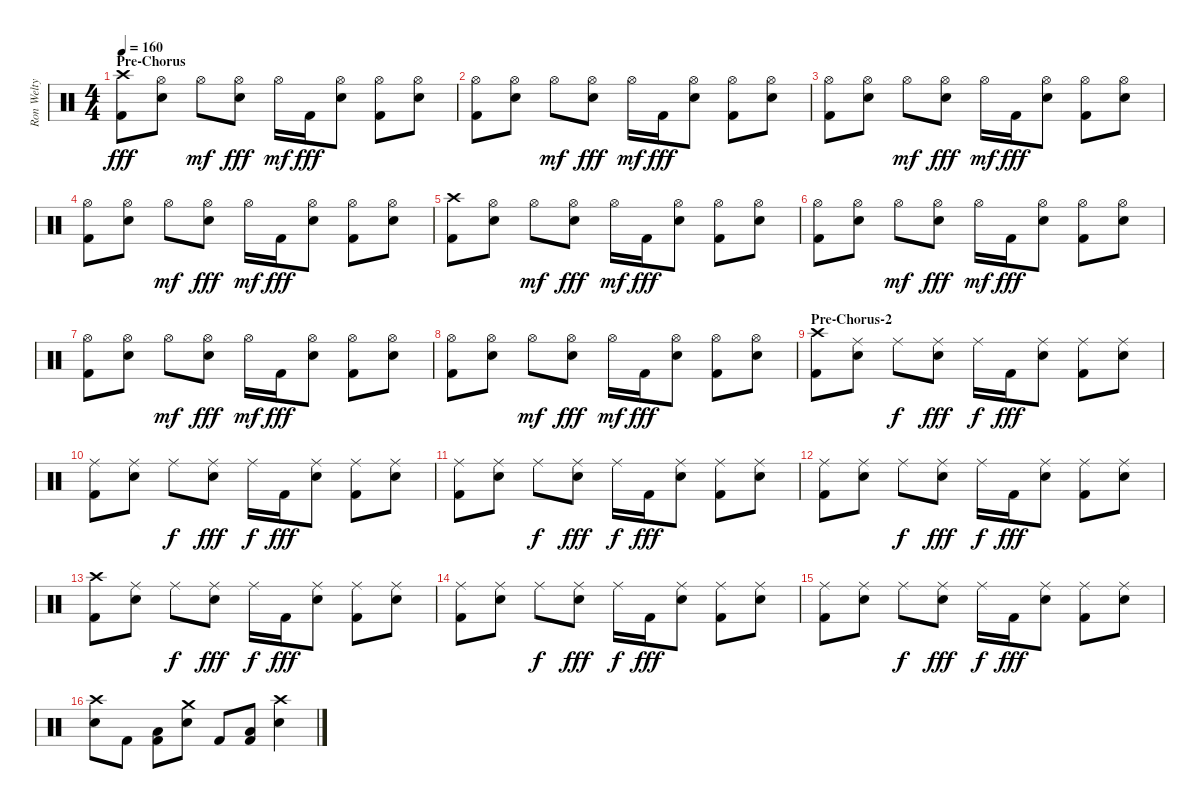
\track ("Ron Welty" "Ron Welty") {instrument percussion}
\staff {score}
\articulation defaults
\ts (4 4)
\section ("" "Pre-Chorus")
\tempo 160
\clef neutral
\ks c
("Crash high (hit)" "Kick (hit) 2").8{dy fff} ("Hi-Hat (open)" "Snare (hit) 2").8 "Hi-Hat (open)".8{dy mf} ("Hi-Hat (open)" "Snare (hit) 2").8{dy fff} "Hi-Hat (open)".16{dy mf} "Kick (hit) 2".16{dy fff} ("Hi-Hat (open)" "Snare (hit) 2").8 ("Hi-Hat (open)" "Kick (hit) 2").8 ("Hi-Hat (open)" "Snare (hit) 2").8 |
("Hi-Hat (open)" "Kick (hit) 2").8 ("Hi-Hat (open)" "Snare (hit) 2").8 "Hi-Hat (open)".8{dy mf} ("Hi-Hat (open)" "Snare (hit) 2").8{dy fff} "Hi-Hat (open)".16{dy mf} "Kick (hit) 2".16{dy fff} ("Hi-Hat (open)" "Snare (hit) 2").8 ("Hi-Hat (open)" "Kick (hit) 2").8 ("Hi-Hat (open)" "Snare (hit) 2").8 |
("Hi-Hat (open)" "Kick (hit) 2").8 ("Hi-Hat (open)" "Snare (hit) 2").8 "Hi-Hat (open)".8{dy mf} ("Hi-Hat (open)" "Snare (hit) 2").8{dy fff} "Hi-Hat (open)".16{dy mf} "Kick (hit) 2".16{dy fff} ("Hi-Hat (open)" "Snare (hit) 2").8 ("Hi-Hat (open)" "Kick (hit) 2").8 ("Hi-Hat (open)" "Snare (hit) 2").8 |
("Hi-Hat (open)" "Kick (hit) 2").8 ("Hi-Hat (open)" "Snare (hit) 2").8 "Hi-Hat (open)".8{dy mf} ("Hi-Hat (open)" "Snare (hit) 2").8{dy fff} "Hi-Hat (open)".16{dy mf} "Kick (hit) 2".16{dy fff} ("Hi-Hat (open)" "Snare (hit) 2").8 ("Hi-Hat (open)" "Kick (hit) 2").8 ("Hi-Hat (open)" "Snare (hit) 2").8 |
("Crash high (hit)" "Kick (hit) 2").8 ("Hi-Hat (open)" "Snare (hit) 2").8 "Hi-Hat (open)".8{dy mf} ("Hi-Hat (open)" "Snare (hit) 2").8{dy fff} "Hi-Hat (open)".16{dy mf} "Kick (hit) 2".16{dy fff} ("Hi-Hat (open)" "Snare (hit) 2").8 ("Hi-Hat (open)" "Kick (hit) 2").8 ("Hi-Hat (open)" "Snare (hit) 2").8 |
("Hi-Hat (open)" "Kick (hit) 2").8 ("Hi-Hat (open)" "Snare (hit) 2").8 "Hi-Hat (open)".8{dy mf} ("Hi-Hat (open)" "Snare (hit) 2").8{dy fff} "Hi-Hat (open)".16{dy mf} "Kick (hit) 2".16{dy fff} ("Hi-Hat (open)" "Snare (hit) 2").8 ("Hi-Hat (open)" "Kick (hit) 2").8 ("Hi-Hat (open)" "Snare (hit) 2").8 |
("Hi-Hat (open)" "Kick (hit) 2").8 ("Hi-Hat (open)" "Snare (hit) 2").8 "Hi-Hat (open)".8{dy mf} ("Hi-Hat (open)" "Snare (hit) 2").8{dy fff} "Hi-Hat (open)".16{dy mf} "Kick (hit) 2".16{dy fff} ("Hi-Hat (open)" "Snare (hit) 2").8 ("Hi-Hat (open)" "Kick (hit) 2").8 ("Hi-Hat (open)" "Snare (hit) 2").8 |
("Hi-Hat (open)" "Kick (hit) 2").8 ("Hi-Hat (open)" "Snare (hit) 2").8 "Hi-Hat (open)".8{dy mf} ("Hi-Hat (open)" "Snare (hit) 2").8{dy fff} "Hi-Hat (open)".16{dy mf} "Kick (hit) 2".16{dy fff} ("Hi-Hat (open)" "Snare (hit) 2").8 ("Hi-Hat (open)" "Kick (hit) 2").8 ("Hi-Hat (open)" "Snare (hit) 2").8 |
\section ("" "Pre-Chorus-2")
("Crash high (hit)" "Kick (hit) 2").8 ("Ride (middle)" "Snare (hit) 2").8 "Ride (middle)".8{dy f} ("Ride (middle)" "Snare (hit) 2").8{dy fff} "Ride (middle)".16{dy f} "Kick (hit) 2".16{dy fff} ("Ride (middle)" "Snare (hit) 2").8 ("Ride (middle)" "Kick (hit) 2").8 ("Ride (middle)" "Snare (hit) 2").8 |
("Ride (middle)" "Kick (hit) 2").8 ("Ride (middle)" "Snare (hit) 2").8 "Ride (middle)".8{dy f} ("Ride (middle)" "Snare (hit) 2").8{dy fff} "Ride (middle)".16{dy f} "Kick (hit) 2".16{dy fff} ("Ride (middle)" "Snare (hit) 2").8 ("Ride (middle)" "Kick (hit) 2").8 ("Ride (middle)" "Snare (hit) 2").8 |
("Ride (middle)" "Kick (hit) 2").8 ("Ride (middle)" "Snare (hit) 2").8 "Ride (middle)".8{dy f} ("Ride (middle)" "Snare (hit) 2").8{dy fff} "Ride (middle)".16{dy f} "Kick (hit) 2".16{dy fff} ("Ride (middle)" "Snare (hit) 2").8 ("Ride (middle)" "Kick (hit) 2").8 ("Ride (middle)" "Snare (hit) 2").8 |
("Ride (middle)" "Kick (hit) 2").8 ("Ride (middle)" "Snare (hit) 2").8 "Ride (middle)".8{dy f} ("Ride (middle)" "Snare (hit) 2").8{dy fff} "Ride (middle)".16{dy f} "Kick (hit) 2".16{dy fff} ("Ride (middle)" "Snare (hit) 2").8 ("Ride (middle)" "Kick (hit) 2").8 ("Ride (middle)" "Snare (hit) 2").8 |
("Crash high (hit)" "Kick (hit) 2").8 ("Ride (middle)" "Snare (hit) 2").8 "Ride (middle)".8{dy f} ("Ride (middle)" "Snare (hit) 2").8{dy fff} "Ride (middle)".16{dy f} "Kick (hit) 2".16{dy fff} ("Ride (middle)" "Snare (hit) 2").8 ("Ride (middle)" "Kick (hit) 2").8 ("Ride (middle)" "Snare (hit) 2").8 |
("Ride (middle)" "Kick (hit) 2").8 ("Ride (middle)" "Snare (hit) 2").8 "Ride (middle)".8{dy f} ("Ride (middle)" "Snare (hit) 2").8{dy fff} "Ride (middle)".16{dy f} "Kick (hit) 2".16{dy fff} ("Ride (middle)" "Snare (hit) 2").8 ("Ride (middle)" "Kick (hit) 2").8 ("Ride (middle)" "Snare (hit) 2").8 |
("Ride (middle)" "Kick (hit) 2").8 ("Ride (middle)" "Snare (hit) 2").8 "Ride (middle)".8{dy f} ("Ride (middle)" "Snare (hit) 2").8{dy fff} "Ride (middle)".16{dy f} "Kick (hit) 2".16{dy fff} ("Ride (middle)" "Snare (hit) 2").8 ("Ride (middle)" "Kick (hit) 2").8 ("Ride (middle)" "Snare (hit) 2").8 |
("Crash high (hit)" "Snare (hit) 2").8 "Kick (hit) 2".8 ("Low Tom (hit)" "Kick (hit) 2").8 ("Crash medium (hit)" "Snare (hit) 2").8 "Kick (hit) 2".8 ("Low Floor Tom (hit)" "Kick (hit) 2").8 ("Crash high (hit)" "Snare (hit) 2").4
